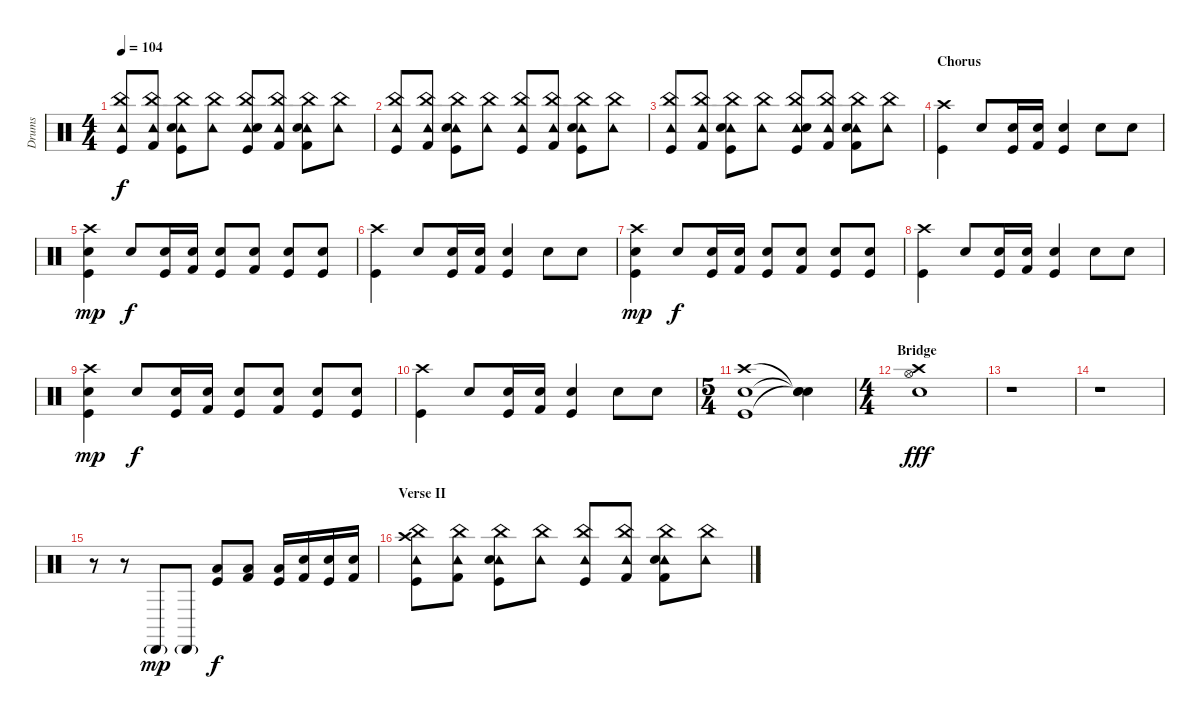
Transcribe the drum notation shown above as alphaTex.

\track ("Drums" "Drums") {instrument percussion}
\staff {score}
\articulation defaults
\ts (4 4)
\tempo 104
\clef neutral
\ks c
("Tambourine (hit)" "China (hit)" "Kick (hit)").8{dy f volume 12} ("Tambourine (hit)" "China (hit)" "Kick (hit) 2").8 ("Tambourine (hit)" "China (hit)" "Snare (hit) 2" "Kick (hit)").8 ("Tambourine (hit)" "China (hit)").8 ("Tambourine (hit)" "China (hit)" "Electric Snare (hit)" "Kick (hit)").8 ("Tambourine (hit)" "China (hit)" "Kick (hit) 2").8 ("Tambourine (hit)" "China (hit)" "Snare (hit) 2" "Kick (hit) 2").8 ("Tambourine (hit)" "China (hit)").8 |
("Tambourine (hit)" "China (hit)" "Kick (hit)").8{volume 12} ("Tambourine (hit)" "China (hit)" "Kick (hit) 2").8 ("Tambourine (hit)" "China (hit)" "Snare (hit) 2" "Kick (hit)").8 ("Tambourine (hit)" "China (hit)").8 ("Tambourine (hit)" "China (hit)" "Kick (hit)").8 ("Tambourine (hit)" "China (hit)" "Kick (hit) 2").8 ("Tambourine (hit)" "China (hit)" "Snare (hit) 2" "Kick (hit)").8 ("Tambourine (hit)" "China (hit)").8 |
("Tambourine (hit)" "China (hit)" "Kick (hit)").8{volume 12} ("Tambourine (hit)" "China (hit)" "Kick (hit) 2").8 ("Tambourine (hit)" "China (hit)" "Snare (hit) 2" "Kick (hit)").8 ("Tambourine (hit)" "China (hit)").8 ("Tambourine (hit)" "China (hit)" "Electric Snare (hit)" "Kick (hit)").8 ("Tambourine (hit)" "China (hit)" "Kick (hit) 2").8 ("Tambourine (hit)" "China (hit)" "Snare (hit) 2" "Kick (hit) 2").8 ("Tambourine (hit)" "China (hit)").8 |
\section ("" "Chorus")
("Crash high (hit)" "Kick (hit)").4{volume 12} "Snare (hit) 2".8 ("Snare (hit) 2" "Kick (hit)").16 ("Electric Snare (hit)" "Kick (hit) 2").16 ("Snare (hit) 2" "Kick (hit)").4 "Snare (hit) 2".8 "Snare (hit) 2".8 |
("Crash high (hit)" "Snare (hit) 2" "Kick (hit)").4{dy mp} "Snare (hit) 2".8{dy f} ("Snare (hit) 2" "Kick (hit)").16 ("Electric Snare (hit)" "Kick (hit) 2").16 ("Snare (hit) 2" "Kick (hit)").8 ("Electric Snare (hit)" "Kick (hit) 2").8 ("Snare (hit) 2" "Kick (hit)").8 ("Snare (hit) 2" "Kick (hit)").8 |
("Crash high (hit)" "Kick (hit)").4{volume 12} "Snare (hit) 2".8 ("Snare (hit) 2" "Kick (hit)").16 ("Electric Snare (hit)" "Kick (hit) 2").16 ("Snare (hit) 2" "Kick (hit)").4 "Snare (hit) 2".8 "Snare (hit) 2".8 |
("Crash high (hit)" "Snare (hit) 2" "Kick (hit)").4{dy mp} "Snare (hit) 2".8{dy f} ("Snare (hit) 2" "Kick (hit)").16 ("Electric Snare (hit)" "Kick (hit) 2").16 ("Snare (hit) 2" "Kick (hit)").8 ("Electric Snare (hit)" "Kick (hit) 2").8 ("Snare (hit) 2" "Kick (hit)").8 ("Snare (hit) 2" "Kick (hit)").8 |
("Crash high (hit)" "Kick (hit)").4{volume 12} "Snare (hit) 2".8 ("Snare (hit) 2" "Kick (hit)").16 ("Electric Snare (hit)" "Kick (hit) 2").16 ("Snare (hit) 2" "Kick (hit)").4 "Snare (hit) 2".8 "Snare (hit) 2".8 |
("Crash high (hit)" "Snare (hit) 2" "Kick (hit)").4{dy mp} "Snare (hit) 2".8{dy f} ("Snare (hit) 2" "Kick (hit)").16 ("Electric Snare (hit)" "Kick (hit) 2").16 ("Snare (hit) 2" "Kick (hit)").8 ("Electric Snare (hit)" "Kick (hit) 2").8 ("Snare (hit) 2" "Kick (hit)").8 ("Snare (hit) 2" "Kick (hit)").8 |
("Crash high (hit)" "Kick (hit)").4{volume 12} "Snare (hit) 2".8 ("Snare (hit) 2" "Kick (hit)").16 ("Electric Snare (hit)" "Kick (hit) 2").16 ("Snare (hit) 2" "Kick (hit)").4 "Snare (hit) 2".8 "Snare (hit) 2".8 |
\ts (5 4)
("Crash high (hit)" "Snare (hit) 2" "Kick (hit)").1 ("Snare (hit)"{t} "Snare (hit)"{t} "Snare (hit)"{t}).4 |
\ts (4 4)
\section ("" "Bridge")
("Crash high (hit)" "Hi-Hat (open)" "Snare (hit) 2").1{dy fff} |
r.1 |
r.1 |
r.8 r.8 "Cabasa (hit)"{g}.8{dy mp} "Cabasa (hit)"{g}.8 ("Low Floor Tom (hit)" "Kick (hit)").8{dy f} ("Low Floor Tom (hit)" "Kick (hit) 2").8 ("Low Floor Tom (hit)" "Kick (hit)").16 ("Electric Snare (hit)" "Kick (hit) 2").16 ("Snare (hit) 2" "Kick (hit)").16 ("Electric Snare (hit)" "Kick (hit) 2").16 |
\section ("" "Verse II")
("Tambourine (hit)" "China (hit)" "Kick (hit)" "Crash high (hit)").8{volume 12} ("Tambourine (hit)" "China (hit)" "Kick (hit) 2").8 ("Tambourine (hit)" "China (hit)" "Snare (hit) 2" "Kick (hit)").8 ("Tambourine (hit)" "China (hit)").8 ("Tambourine (hit)" "China (hit)" "Kick (hit)").8 ("Tambourine (hit)" "China (hit)" "Kick (hit) 2").8 ("Tambourine (hit)" "China (hit)" "Snare (hit) 2" "Kick (hit) 2").8 ("Tambourine (hit)" "China (hit)").8
